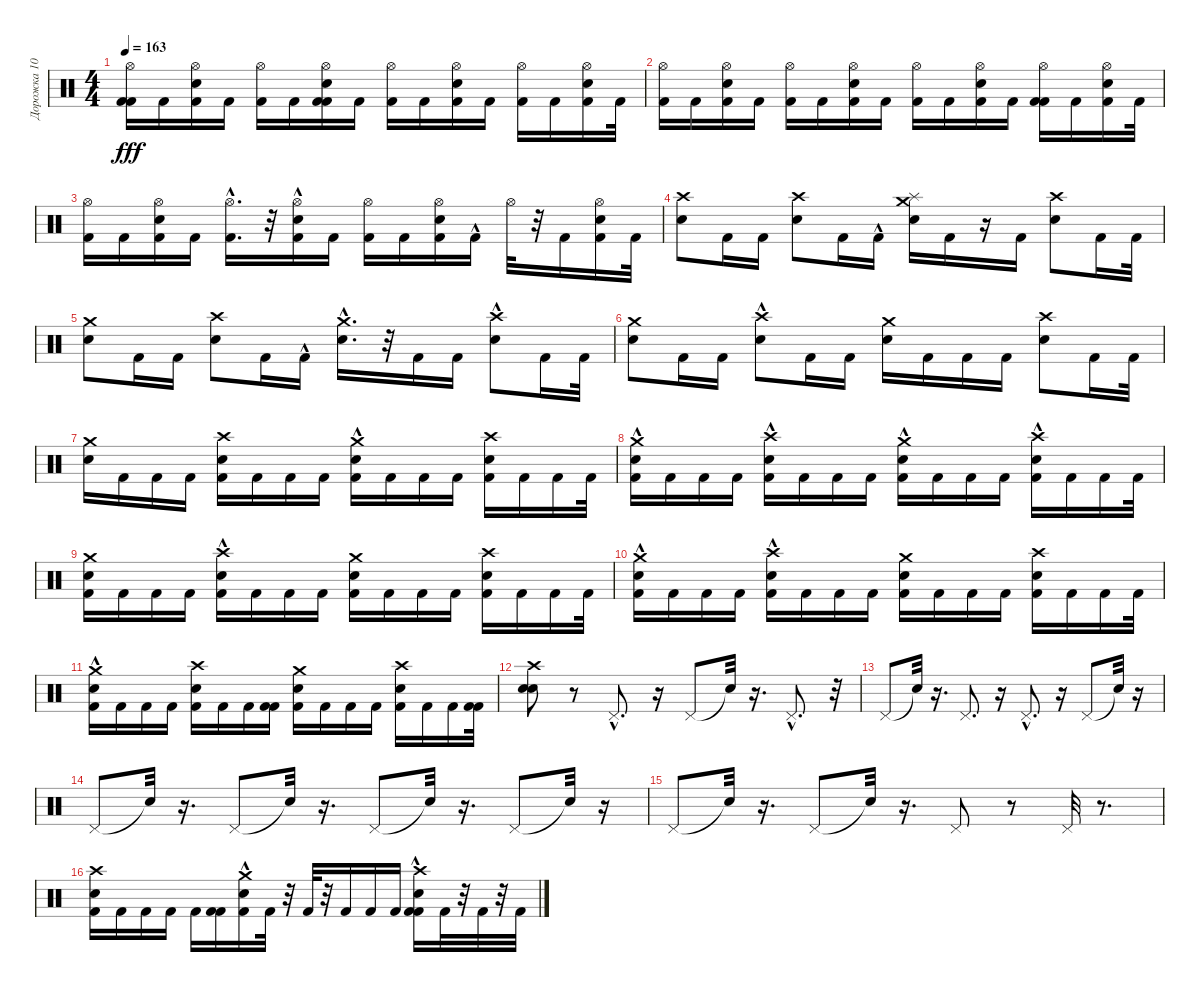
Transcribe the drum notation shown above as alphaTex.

\track ("Дорожка 10" "Дорожка 10") {instrument percussion}
\staff {score}
\articulation defaults
\ts (4 4)
\tempo 163
\clef neutral
\ks c
("Kick (hit) 2" "Hi-Hat (open)" "Kick (hit) 2").16{dy fff} "Kick (hit) 2".16 ("Hi-Hat (open)" "Electric Snare (hit)" "Kick (hit) 2").16 "Kick (hit) 2".16 ("Kick (hit) 2" "Hi-Hat (open)").16 "Kick (hit) 2".16 ("Kick (hit) 2" "Hi-Hat (open)" "Electric Snare (hit)" "Kick (hit) 2").16 "Kick (hit) 2".16 ("Kick (hit) 2" "Hi-Hat (open)").16 "Kick (hit) 2".16 ("Kick (hit) 2" "Hi-Hat (open)" "Electric Snare (hit)").16 "Kick (hit) 2".16 ("Kick (hit) 2" "Hi-Hat (open)").16 "Kick (hit) 2".16 ("Kick (hit) 2" "Hi-Hat (open)" "Electric Snare (hit)").16 "Kick (hit) 2".32 |
("Kick (hit) 2" "Hi-Hat (open)").16 "Kick (hit) 2".16 ("Kick (hit) 2" "Hi-Hat (open)" "Electric Snare (hit)").16 "Kick (hit) 2".16 ("Kick (hit) 2" "Hi-Hat (open)").16 "Kick (hit) 2".16 ("Kick (hit) 2" "Hi-Hat (open)" "Electric Snare (hit)").16 "Kick (hit) 2".16 ("Kick (hit) 2" "Hi-Hat (open)").16 "Kick (hit) 2".16 ("Kick (hit) 2" "Hi-Hat (open)" "Electric Snare (hit)").16 "Kick (hit) 2".16 ("Kick (hit) 2" "Hi-Hat (open)" "Kick (hit) 2").16 "Kick (hit) 2".16 ("Hi-Hat (open)" "Electric Snare (hit)" "Kick (hit) 2").16 "Kick (hit) 2".32 |
("Hi-Hat (open)" "Kick (hit) 2").16 "Kick (hit) 2".16 ("Hi-Hat (open)" "Electric Snare (hit)" "Kick (hit) 2").16 "Kick (hit) 2".16 ("Hi-Hat (open)" "Kick (hit) 2"{hac}).16{d} r.32 ("Kick (hit) 2" "Hi-Hat (open)" "Electric Snare (hit)"{hac}).16 "Kick (hit) 2".16 ("Hi-Hat (open)" "Kick (hit) 2").16 "Kick (hit) 2".16 ("Hi-Hat (open)" "Electric Snare (hit)" "Kick (hit) 2").16 "Kick (hit) 2"{hac}.16 "Hi-Hat (open)".32 r.32 "Kick (hit) 2".16 ("Hi-Hat (open)" "Electric Snare (hit)" "Kick (hit) 2").16 "Kick (hit) 2".32 |
("Electric Snare (hit)" "Crash high (hit)").8 "Kick (hit) 2".16 "Kick (hit) 2".16 ("Electric Snare (hit)" "Crash high (hit)").8 "Kick (hit) 2".16 "Kick (hit) 2"{hac}.16 ("Electric Snare (hit)" "Crash medium (hit)" "Splash (hit)").16 "Kick (hit) 2".16 r.16 "Kick (hit) 2".16 ("Electric Snare (hit)" "Crash high (hit)").8 "Kick (hit) 2".16 "Kick (hit) 2".32 |
("Electric Snare (hit)" "Crash medium (hit)").8 "Kick (hit) 2".16 "Kick (hit) 2".16 ("Electric Snare (hit)" "Crash high (hit)").8 "Kick (hit) 2".16 "Kick (hit) 2"{hac}.16 ("Electric Snare (hit)"{hac} "Crash medium (hit)").16{d} r.32 "Kick (hit) 2".16 "Kick (hit) 2".16 ("Electric Snare (hit)" "Crash high (hit)"{hac}).8 "Kick (hit) 2".16 "Kick (hit) 2".32 |
("Electric Snare (hit)" "Crash medium (hit)").8 "Kick (hit) 2".16 "Kick (hit) 2".16 ("Electric Snare (hit)" "Crash high (hit)"{hac}).8 "Kick (hit) 2".16 "Kick (hit) 2".16 ("Electric Snare (hit)" "Crash medium (hit)").16 "Kick (hit) 2".16 "Kick (hit) 2".16 "Kick (hit) 2".16 ("Electric Snare (hit)" "Crash high (hit)").8 "Kick (hit) 2".16 "Kick (hit) 2".32 |
("Electric Snare (hit)" "Crash medium (hit)").16 "Kick (hit) 2".16 "Kick (hit) 2".16 "Kick (hit) 2".16 ("Kick (hit) 2" "Electric Snare (hit)" "Crash high (hit)").16 "Kick (hit) 2".16 "Kick (hit) 2".16 "Kick (hit) 2".16 ("Kick (hit) 2" "Electric Snare (hit)"{hac} "Crash medium (hit)").16 "Kick (hit) 2".16 "Kick (hit) 2".16 "Kick (hit) 2".16 ("Kick (hit) 2" "Electric Snare (hit)" "Crash high (hit)").16 "Kick (hit) 2".16 "Kick (hit) 2".16 "Kick (hit) 2".32 |
("Electric Snare (hit)"{hac} "Kick (hit) 2" "Crash medium (hit)").16 "Kick (hit) 2".16 "Kick (hit) 2".16 "Kick (hit) 2".16 ("Electric Snare (hit)"{hac} "Kick (hit) 2" "Crash high (hit)"{hac}).16 "Kick (hit) 2".16 "Kick (hit) 2".16 "Kick (hit) 2".16 ("Electric Snare (hit)"{hac} "Kick (hit) 2" "Crash medium (hit)").16 "Kick (hit) 2".16 "Kick (hit) 2".16 "Kick (hit) 2".16 ("Kick (hit) 2" "Electric Snare (hit)" "Crash high (hit)"{hac}).16 "Kick (hit) 2".16 "Kick (hit) 2".16 "Kick (hit) 2".32 |
("Kick (hit) 2" "Electric Snare (hit)" "Crash medium (hit)").16 "Kick (hit) 2".16 "Kick (hit) 2".16 "Kick (hit) 2".16 ("Kick (hit) 2" "Electric Snare (hit)" "Crash high (hit)"{hac}).16 "Kick (hit) 2".16 "Kick (hit) 2".16 "Kick (hit) 2".16 ("Kick (hit) 2" "Electric Snare (hit)" "Crash medium (hit)").16 "Kick (hit) 2".16 "Kick (hit) 2".16 "Kick (hit) 2".16 ("Kick (hit) 2" "Electric Snare (hit)" "Crash high (hit)").16 "Kick (hit) 2".16 "Kick (hit) 2".16 "Kick (hit) 2".32 |
("Electric Snare (hit)"{hac} "Kick (hit) 2" "Crash medium (hit)").16 "Kick (hit) 2".16 "Kick (hit) 2".16 "Kick (hit) 2".16 ("Kick (hit) 2" "Electric Snare (hit)"{hac} "Crash high (hit)").16 "Kick (hit) 2".16 "Kick (hit) 2".16 "Kick (hit) 2".16 ("Kick (hit) 2" "Electric Snare (hit)" "Crash medium (hit)").16 "Kick (hit) 2".16 "Kick (hit) 2".16 "Kick (hit) 2".16 ("Kick (hit) 2" "Electric Snare (hit)" "Crash high (hit)").16 "Kick (hit) 2".16 "Kick (hit) 2".16 "Kick (hit) 2".32 |
("Kick (hit) 2" "Electric Snare (hit)"{hac} "Crash medium (hit)").16 "Kick (hit) 2".16 "Kick (hit) 2".16 "Kick (hit) 2".16 ("Electric Snare (hit)" "Kick (hit) 2" "Crash high (hit)").16 "Kick (hit) 2".16 "Kick (hit) 2".16 ("Kick (hit) 2" "Kick (hit) 2").16 ("Kick (hit) 2" "Electric Snare (hit)" "Crash medium (hit)").16 "Kick (hit) 2".16 "Kick (hit) 2".16 "Kick (hit) 2".16 ("Electric Snare (hit)" "Kick (hit) 2" "Crash high (hit)").16 "Kick (hit) 2".16 "Kick (hit) 2".16 ("Kick (hit) 2" "Kick (hit) 2").32 |
("Electric Snare (hit)" "Electric Snare (hit)" "Crash high (hit)").8 r.8 "Pedal Hi-Hat (hit)"{hac}.8{d} r.16 "Pedal Hi-Hat (hit)".8 "Snare (hit)"{t}.32 r.16{d} "Pedal Hi-Hat (hit)"{hac}.8{d} r.32 |
"Pedal Hi-Hat (hit)".8 "Snare (hit)"{t}.32 r.16{d} "Pedal Hi-Hat (hit)".8{d} r.16 "Pedal Hi-Hat (hit)"{hac}.8{d} r.16 "Pedal Hi-Hat (hit)".8 "Snare (hit)"{t}.32 r.16 |
"Pedal Hi-Hat (hit)".8 "Snare (hit)"{t}.32 r.16{d} "Pedal Hi-Hat (hit)".8 "Snare (hit)"{t}.32 r.16{d} "Pedal Hi-Hat (hit)".8 "Snare (hit)"{t}.32 r.16{d} "Pedal Hi-Hat (hit)".8 "Snare (hit)"{t}.32 r.16 |
"Pedal Hi-Hat (hit)".8 "Snare (hit)"{t}.32 r.16{d} "Pedal Hi-Hat (hit)".8 "Snare (hit)"{t}.32 r.16{d} "Pedal Hi-Hat (hit)".8 r.8 "Pedal Hi-Hat (hit)".32 r.8{d} |
("Kick (hit) 2" "Electric Snare (hit)" "Crash high (hit)").16 "Kick (hit) 2".16 "Kick (hit) 2".16 "Kick (hit) 2".16 "Kick (hit) 2".16 ("Kick (hit) 2" "Kick (hit) 2").16 ("Kick (hit) 2" "Electric Snare (hit)" "Crash medium (hit)"{hac}).16 "Kick (hit) 2".32 r.32 "Kick (hit) 2".32 r.32 "Kick (hit) 2".16 "Kick (hit) 2".16 "Kick (hit) 2".16 ("Kick (hit) 2" "Electric Snare (hit)" "Crash high (hit)"{hac} "Kick (hit) 2").16 "Kick (hit) 2".32 r.32 "Kick (hit) 2".32 r.32 "Kick (hit) 2".32
